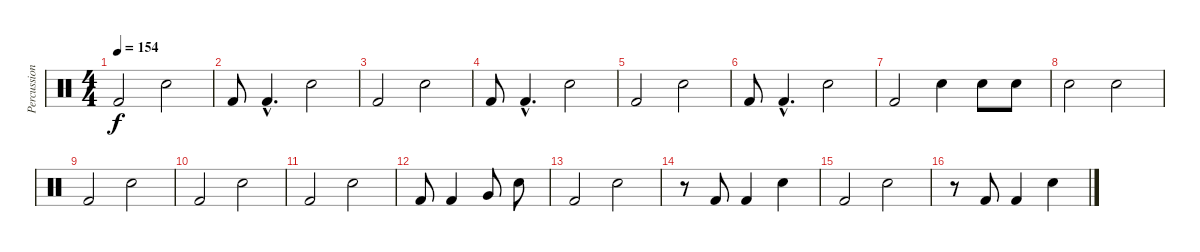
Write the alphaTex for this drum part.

\track ("Percussion" "Percussion") {instrument percussion}
\staff {score}
\articulation defaults
\ts (4 4)
\tempo 154
\clef neutral
\ks c "Kick (hit) 2".2{dy f} "Snare (hit) 2".2
|
"Kick (hit) 2".8 "Kick (hit) 2"{hac}.4{d} "Snare (hit) 2".2 |
"Kick (hit) 2".2 "Snare (hit) 2".2 |
"Kick (hit) 2".8 "Kick (hit) 2"{hac}.4{d} "Snare (hit) 2".2 |
"Kick (hit) 2".2 "Snare (hit) 2".2 |
"Kick (hit) 2".8 "Kick (hit) 2"{hac}.4{d} "Snare (hit) 2".2 |
"Kick (hit) 2".2 "Snare (hit) 2".4 "Snare (hit) 2".8 "Snare (hit) 2".8 |
"Snare (hit) 2".2 "Snare (hit) 2".2 |
"Kick (hit) 2".2 "Snare (hit) 2".2 |
"Kick (hit) 2".2 "Snare (hit) 2".2 |
"Kick (hit) 2".2 "Snare (hit) 2".2 |
"Kick (hit) 2".8 "Kick (hit) 2".4 "Very Low Tom (hit)".8 "Snare (hit) 2".8 |
"Kick (hit) 2".2 "Snare (hit) 2".2 |
r.8 "Kick (hit) 2".8 "Kick (hit) 2".4 "Snare (hit) 2".4 |
"Kick (hit) 2".2 "Snare (hit) 2".2 |
r.8 "Kick (hit) 2".8 "Kick (hit) 2".4 "Snare (hit) 2".4
